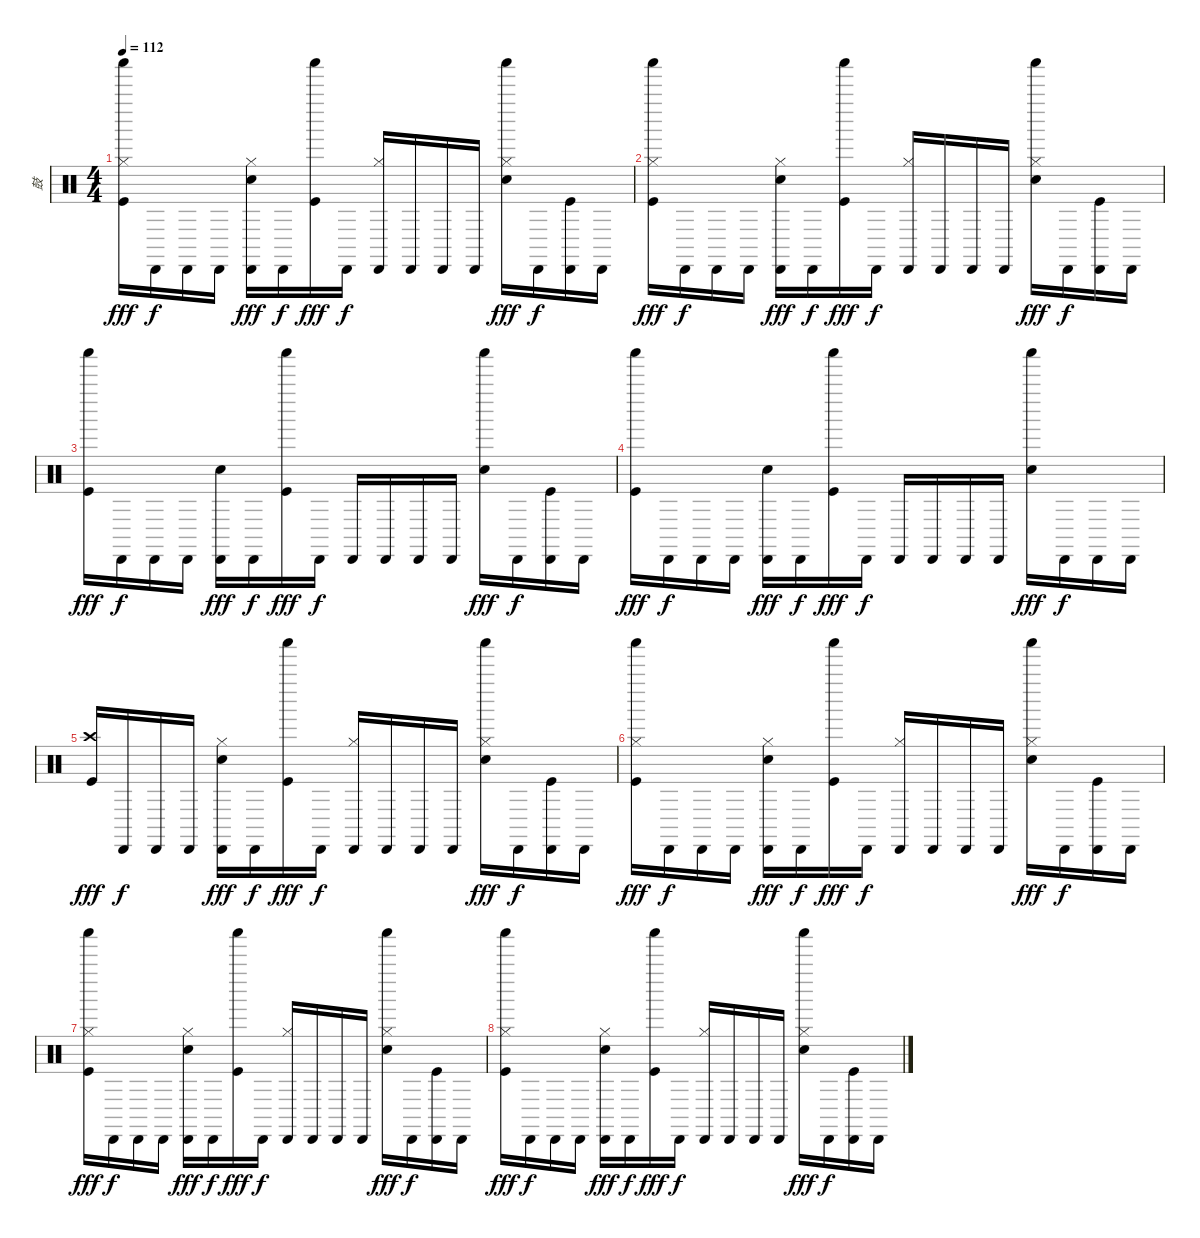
\track ("鼓" "鼓") {instrument percussion}
\staff {score}
\articulation defaults
\ts (4 4)
\tempo 112
\clef neutral
\ks c
("Shaker (hit)" "Hi-Hat (closed)" "Kick (hit)").16{dy fff} "Cabasa (hit)".16{dy f} "Cabasa (hit)".16 "Cabasa (hit)".16 ("Cabasa (hit)" "Hi-Hat (closed)" "Electric Snare (hit)").16{dy fff} "Cabasa (hit)".16{dy f} ("Shaker (hit)" "Kick (hit)").16{dy fff} "Cabasa (hit)".16{dy f} ("Cabasa (hit)" "Hi-Hat (closed)").16 "Cabasa (hit)".16 "Cabasa (hit)".16 "Cabasa (hit)".16 ("Shaker (hit)" "Hi-Hat (closed)" "Electric Snare (hit)").16{dy fff} "Cabasa (hit)".16{dy f} ("Cabasa (hit)" "Kick (hit)").16 "Cabasa (hit)".16 |
("Shaker (hit)" "Hi-Hat (closed)" "Kick (hit)").16{dy fff} "Cabasa (hit)".16{dy f} "Cabasa (hit)".16 "Cabasa (hit)".16 ("Cabasa (hit)" "Hi-Hat (closed)" "Electric Snare (hit)").16{dy fff} "Cabasa (hit)".16{dy f} ("Shaker (hit)" "Kick (hit)").16{dy fff} "Cabasa (hit)".16{dy f} ("Cabasa (hit)" "Hi-Hat (closed)").16 "Cabasa (hit)".16 "Cabasa (hit)".16 "Cabasa (hit)".16 ("Shaker (hit)" "Hi-Hat (closed)" "Electric Snare (hit)").16{dy fff} "Cabasa (hit)".16{dy f} ("Cabasa (hit)" "Kick (hit)").16 "Cabasa (hit)".16 |
("Shaker (hit)" "Kick (hit)").16{dy fff} "Cabasa (hit)".16{dy f} "Cabasa (hit)".16 "Cabasa (hit)".16 ("Cabasa (hit)" "Electric Snare (hit)").16{dy fff} "Cabasa (hit)".16{dy f} ("Shaker (hit)" "Kick (hit)").16{dy fff} "Cabasa (hit)".16{dy f} "Cabasa (hit)".16 "Cabasa (hit)".16 "Cabasa (hit)".16 "Cabasa (hit)".16 ("Shaker (hit)" "Electric Snare (hit)").16{dy fff} "Cabasa (hit)".16{dy f} ("Cabasa (hit)" "Kick (hit)").16 "Cabasa (hit)".16 |
("Shaker (hit)" "Kick (hit)").16{dy fff} "Cabasa (hit)".16{dy f} "Cabasa (hit)".16 "Cabasa (hit)".16 ("Cabasa (hit)" "Electric Snare (hit)").16{dy fff} "Cabasa (hit)".16{dy f} ("Shaker (hit)" "Kick (hit)").16{dy fff} "Cabasa (hit)".16{dy f} "Cabasa (hit)".16 "Cabasa (hit)".16 "Cabasa (hit)".16 "Cabasa (hit)".16 ("Shaker (hit)" "Electric Snare (hit)").16{dy fff} "Cabasa (hit)".16{dy f} "Cabasa (hit)".16 "Cabasa (hit)".16 |
("Crash high (hit)" "Kick (hit)").16{dy fff} "Cabasa (hit)".16{dy f} "Cabasa (hit)".16 "Cabasa (hit)".16 ("Cabasa (hit)" "Hi-Hat (closed)" "Electric Snare (hit)").16{dy fff} "Cabasa (hit)".16{dy f} ("Shaker (hit)" "Kick (hit)").16{dy fff} "Cabasa (hit)".16{dy f} ("Cabasa (hit)" "Hi-Hat (closed)").16 "Cabasa (hit)".16 "Cabasa (hit)".16 "Cabasa (hit)".16 ("Shaker (hit)" "Hi-Hat (closed)" "Electric Snare (hit)").16{dy fff} "Cabasa (hit)".16{dy f} ("Cabasa (hit)" "Kick (hit)").16 "Cabasa (hit)".16 |
("Shaker (hit)" "Hi-Hat (closed)" "Kick (hit)").16{dy fff} "Cabasa (hit)".16{dy f} "Cabasa (hit)".16 "Cabasa (hit)".16 ("Cabasa (hit)" "Hi-Hat (closed)" "Electric Snare (hit)").16{dy fff} "Cabasa (hit)".16{dy f} ("Shaker (hit)" "Kick (hit)").16{dy fff} "Cabasa (hit)".16{dy f} ("Cabasa (hit)" "Hi-Hat (closed)").16 "Cabasa (hit)".16 "Cabasa (hit)".16 "Cabasa (hit)".16 ("Shaker (hit)" "Hi-Hat (closed)" "Electric Snare (hit)").16{dy fff} "Cabasa (hit)".16{dy f} ("Cabasa (hit)" "Kick (hit)").16 "Cabasa (hit)".16 |
("Shaker (hit)" "Hi-Hat (closed)" "Kick (hit)").16{dy fff} "Cabasa (hit)".16{dy f} "Cabasa (hit)".16 "Cabasa (hit)".16 ("Cabasa (hit)" "Hi-Hat (closed)" "Electric Snare (hit)").16{dy fff} "Cabasa (hit)".16{dy f} ("Shaker (hit)" "Kick (hit)").16{dy fff} "Cabasa (hit)".16{dy f} ("Cabasa (hit)" "Hi-Hat (closed)").16 "Cabasa (hit)".16 "Cabasa (hit)".16 "Cabasa (hit)".16 ("Shaker (hit)" "Hi-Hat (closed)" "Electric Snare (hit)").16{dy fff} "Cabasa (hit)".16{dy f} ("Cabasa (hit)" "Kick (hit)").16 "Cabasa (hit)".16 |
("Shaker (hit)" "Hi-Hat (closed)" "Kick (hit)").16{dy fff} "Cabasa (hit)".16{dy f} "Cabasa (hit)".16 "Cabasa (hit)".16 ("Cabasa (hit)" "Hi-Hat (closed)" "Electric Snare (hit)").16{dy fff} "Cabasa (hit)".16{dy f} ("Shaker (hit)" "Kick (hit)").16{dy fff} "Cabasa (hit)".16{dy f} ("Cabasa (hit)" "Hi-Hat (closed)").16 "Cabasa (hit)".16 "Cabasa (hit)".16 "Cabasa (hit)".16 ("Shaker (hit)" "Hi-Hat (closed)" "Electric Snare (hit)").16{dy fff} "Cabasa (hit)".16{dy f} ("Cabasa (hit)" "Kick (hit)").16 "Cabasa (hit)".16
